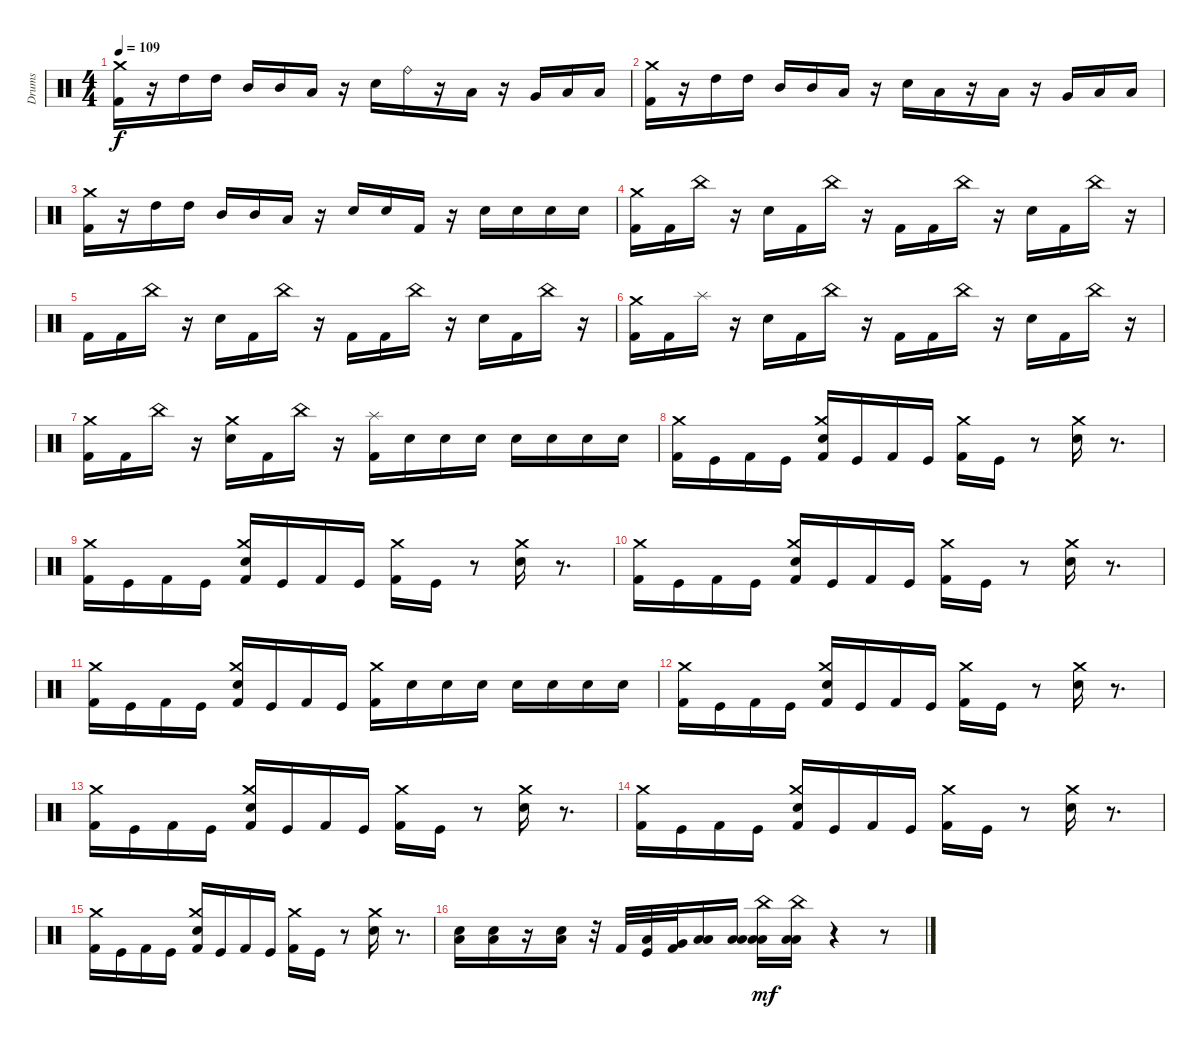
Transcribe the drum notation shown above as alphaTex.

\track ("Drums" "Drums") {instrument percussion}
\staff {score}
\articulation defaults
\ts (4 4)
\tempo 109
\clef neutral
\ks c
("Kick (hit) 2" "Crash medium (hit)").16{dy f} r.16 "High Tom (hit)".16 "High Tom (hit)".16 "Mid Tom (hit)".16 "Mid Tom (hit)".16 "Low Tom (hit)".16 r.16 "Electric Snare (hit)".16 "Ride (bell)".16 r.16 "Low Tom (hit)".16 r.16 "Very Low Tom (hit)".16 "Low Floor Tom (hit)".16 "Low Floor Tom (hit)".16 |
("Kick (hit) 2" "Crash medium (hit)").16 r.16 "High Tom (hit)".16 "High Tom (hit)".16 "Mid Tom (hit)".16 "Mid Tom (hit)".16 "Low Tom (hit)".16 r.16 "Electric Snare (hit)".16 "Low Tom (hit)".16 r.16 "Low Tom (hit)".16 r.16 "Very Low Tom (hit)".16 "Low Floor Tom (hit)".16 "Low Floor Tom (hit)".16 |
("Kick (hit) 2" "Crash medium (hit)").16 r.16 "High Tom (hit)".16 "High Tom (hit)".16 "Mid Tom (hit)".16 "Mid Tom (hit)".16 "Low Tom (hit)".16 r.16 "Electric Snare (hit)".16 "Electric Snare (hit)".16 "Kick (hit) 2".16 r.16 "Electric Snare (hit)".16 "Electric Snare (hit)".16 "Electric Snare (hit)".16 "Electric Snare (hit)".16 |
("Crash medium (hit)" "Kick (hit) 2").16 "Kick (hit) 2".16 "China (hit)".16 r.16 "Electric Snare (hit)".16 "Kick (hit) 2".16 "China (hit)".16 r.16 "Kick (hit) 2".16 "Kick (hit) 2".16 "China (hit)".16 r.16 "Electric Snare (hit)".16 "Kick (hit) 2".16 "China (hit)".16 r.16 |
"Kick (hit) 2".16 "Kick (hit) 2".16 "China (hit)".16 r.16 "Electric Snare (hit)".16 "Kick (hit) 2".16 "China (hit)".16 r.16 "Kick (hit) 2".16 "Kick (hit) 2".16 "China (hit)".16 r.16 "Electric Snare (hit)".16 "Kick (hit) 2".16 "China (hit)".16 r.16 |
("Crash medium (hit)" "Kick (hit) 2").16 "Kick (hit) 2".16 "Splash (hit)".16 r.16 "Electric Snare (hit)".16 "Kick (hit) 2".16 "China (hit)".16 r.16 "Kick (hit) 2".16 "Kick (hit) 2".16 "China (hit)".16 r.16 "Electric Snare (hit)".16 "Kick (hit) 2".16 "China (hit)".16 r.16 |
("Crash medium (hit)" "Kick (hit) 2").16 "Kick (hit) 2".16 "China (hit)".16 r.16 ("Crash medium (hit)" "Electric Snare (hit)").16 "Kick (hit) 2".16 "China (hit)".16 r.16 ("Splash (hit)" "Kick (hit) 2").16 "Electric Snare (hit)".16 "Electric Snare (hit)".16 "Electric Snare (hit)".16 "Electric Snare (hit)".16 "Electric Snare (hit)".16 "Electric Snare (hit)".16 "Electric Snare (hit)".16 |
("Crash medium (hit)" "Kick (hit) 2").16 "Kick (hit)".16 "Kick (hit) 2".16 "Kick (hit)".16 ("Crash medium (hit)" "Kick (hit) 2" "Electric Snare (hit)").16 "Kick (hit)".16 "Kick (hit) 2".16 "Kick (hit)".16 ("Crash medium (hit)" "Kick (hit) 2").16 "Kick (hit)".16 r.8 ("Crash medium (hit)" "Electric Snare (hit)").16 r.8{d} |
("Crash medium (hit)" "Kick (hit) 2").16 "Kick (hit)".16 "Kick (hit) 2".16 "Kick (hit)".16 ("Crash medium (hit)" "Kick (hit) 2" "Electric Snare (hit)").16 "Kick (hit)".16 "Kick (hit) 2".16 "Kick (hit)".16 ("Crash medium (hit)" "Kick (hit) 2").16 "Kick (hit)".16 r.8 ("Crash medium (hit)" "Electric Snare (hit)").16 r.8{d} |
("Crash medium (hit)" "Kick (hit) 2").16 "Kick (hit)".16 "Kick (hit) 2".16 "Kick (hit)".16 ("Crash medium (hit)" "Kick (hit) 2" "Electric Snare (hit)").16 "Kick (hit)".16 "Kick (hit) 2".16 "Kick (hit)".16 ("Crash medium (hit)" "Kick (hit) 2").16 "Kick (hit)".16 r.8 ("Crash medium (hit)" "Electric Snare (hit)").16 r.8{d} |
("Crash medium (hit)" "Kick (hit) 2").16 "Kick (hit)".16 "Kick (hit) 2".16 "Kick (hit)".16 ("Crash medium (hit)" "Kick (hit) 2" "Electric Snare (hit)").16 "Kick (hit)".16 "Kick (hit) 2".16 "Kick (hit)".16 ("Crash medium (hit)" "Kick (hit) 2").16 "Electric Snare (hit)".16 "Electric Snare (hit)".16 "Electric Snare (hit)".16 "Electric Snare (hit)".16 "Electric Snare (hit)".16 "Electric Snare (hit)".16 "Electric Snare (hit)".16 |
("Crash medium (hit)" "Kick (hit) 2").16 "Kick (hit)".16 "Kick (hit) 2".16 "Kick (hit)".16 ("Crash medium (hit)" "Kick (hit) 2" "Electric Snare (hit)").16 "Kick (hit)".16 "Kick (hit) 2".16 "Kick (hit)".16 ("Crash medium (hit)" "Kick (hit) 2").16 "Kick (hit)".16 r.8 ("Crash medium (hit)" "Electric Snare (hit)").16 r.8{d} |
("Crash medium (hit)" "Kick (hit) 2").16 "Kick (hit)".16 "Kick (hit) 2".16 "Kick (hit)".16 ("Crash medium (hit)" "Kick (hit) 2" "Electric Snare (hit)").16 "Kick (hit)".16 "Kick (hit) 2".16 "Kick (hit)".16 ("Crash medium (hit)" "Kick (hit) 2").16 "Kick (hit)".16 r.8 ("Crash medium (hit)" "Electric Snare (hit)").16 r.8{d} |
("Crash medium (hit)" "Kick (hit) 2").16 "Kick (hit)".16 "Kick (hit) 2".16 "Kick (hit)".16 ("Crash medium (hit)" "Kick (hit) 2" "Electric Snare (hit)").16 "Kick (hit)".16 "Kick (hit) 2".16 "Kick (hit)".16 ("Crash medium (hit)" "Kick (hit) 2").16 "Kick (hit)".16 r.8 ("Crash medium (hit)" "Electric Snare (hit)").16 r.8{d} |
("Crash medium (hit)" "Kick (hit) 2").16 "Kick (hit)".16 "Kick (hit) 2".16 "Kick (hit)".16 ("Crash medium (hit)" "Kick (hit) 2" "Electric Snare (hit)").16 "Kick (hit)".16 "Kick (hit) 2".16 "Kick (hit)".16 ("Crash medium (hit)" "Kick (hit) 2").16 "Kick (hit)".16 r.8 ("Crash medium (hit)" "Electric Snare (hit)").16 r.8{d} |
("Electric Snare (hit)" "Low Floor Tom (hit)").16 ("Electric Snare (hit)" "Low Floor Tom (hit)").16 r.16 ("Electric Snare (hit)" "Low Floor Tom (hit)").16 r.32 "Kick (hit) 2".32 ("Low Tom (hit)" "Kick (hit)").32 ("Very Low Tom (hit)" "Kick (hit) 2").32 ("Low Floor Tom (hit)" "Low Tom (hit)").16 ("Low Floor Tom (hit)" "Low Tom (hit)").16 ("China (hit)" "Low Tom (hit)" "Low Floor Tom (hit)").16{dy mf} ("China (hit)" "Low Tom (hit)" "Low Floor Tom (hit)").16 r.4 r.8
